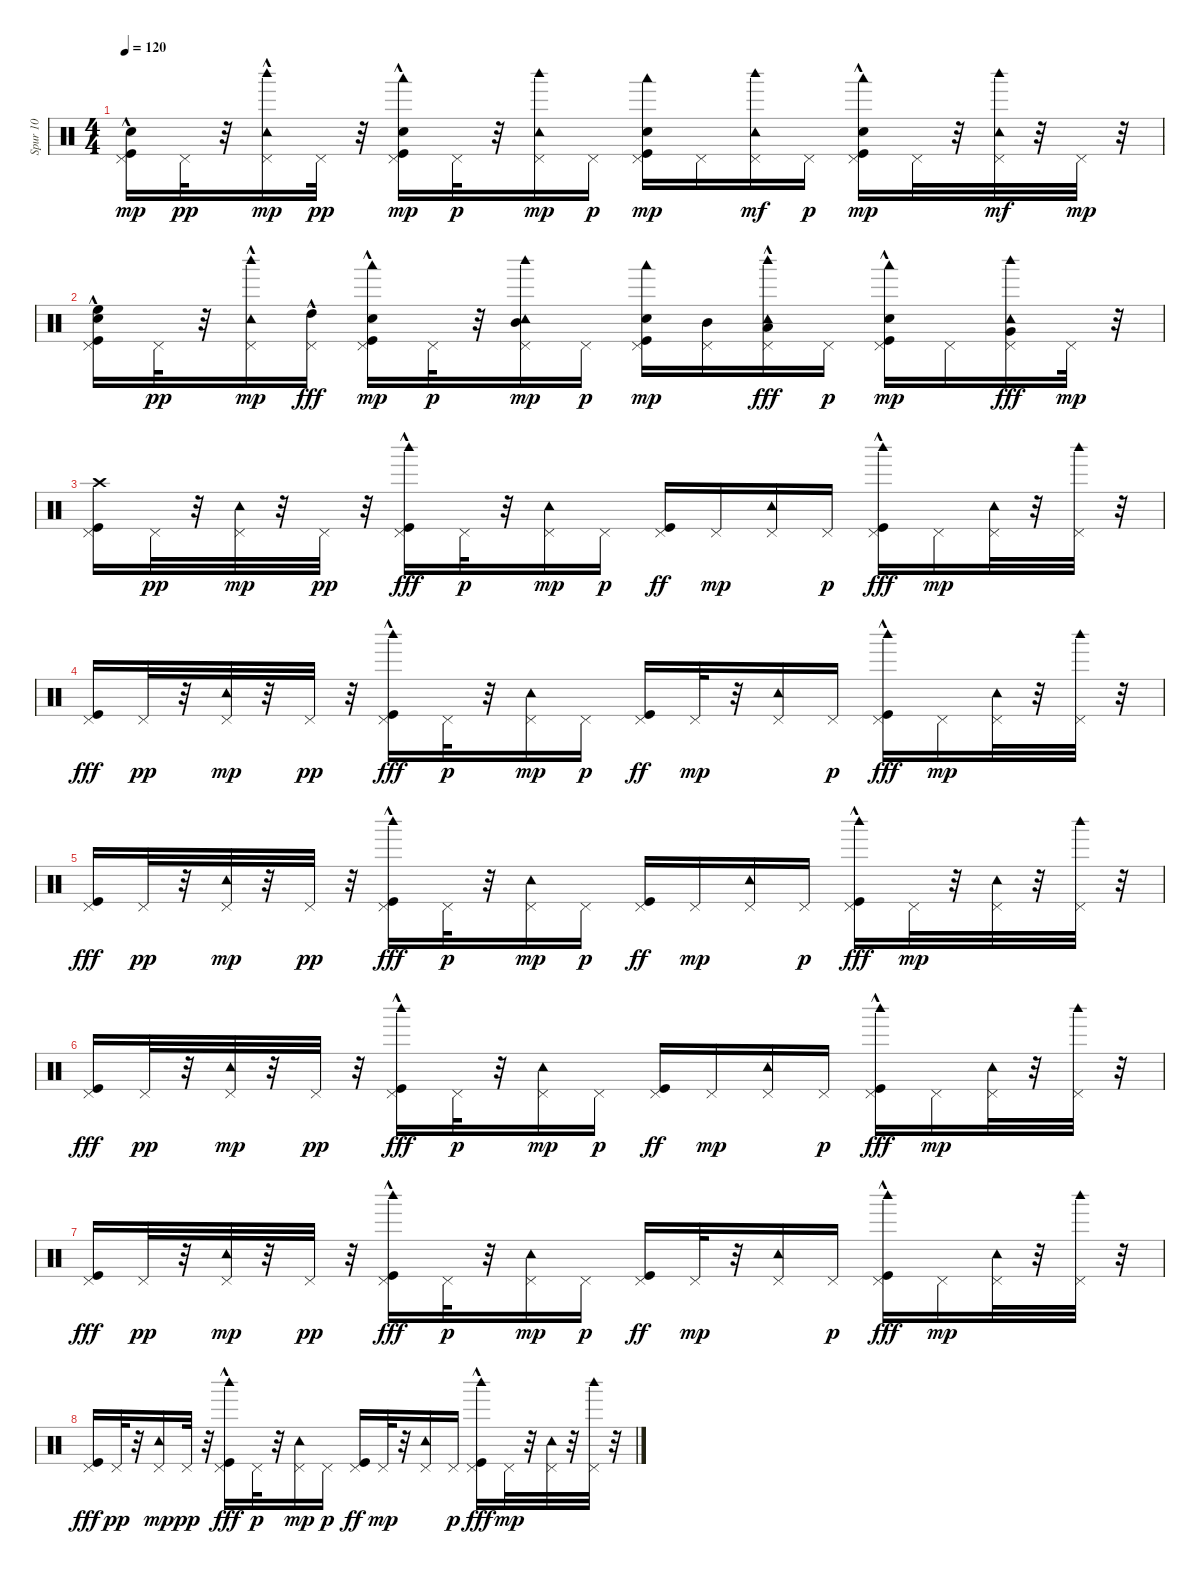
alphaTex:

\track ("Spur 10" "Spur 10") {instrument percussion}
\staff {score}
\articulation defaults
\ts (4 4)
\tempo 120
\clef neutral
\ks c
("Pedal Hi-Hat (hit)" "Kick (hit)" "Hand Clap (hit)"{hac}).16{dy mp} "Pedal Hi-Hat (hit)".32{dy pp} r.32 ("Pedal Hi-Hat (hit)" "Tambourine (hit)" "Woodblock high (hit)"{hac}).16{dy mp} "Pedal Hi-Hat (hit)".32{dy pp} r.32 ("Kick (hit)" "Pedal Hi-Hat (hit)" "Hand Clap (hit)" "Woodblock low (hit)"{hac}).16{dy mp} "Pedal Hi-Hat (hit)".32{dy p} r.32 ("Pedal Hi-Hat (hit)" "Tambourine (hit)" "Woodblock high (hit)").16{dy mp} "Pedal Hi-Hat (hit)".16{dy p} ("Kick (hit)" "Pedal Hi-Hat (hit)" "Hand Clap (hit)" "Woodblock low (hit)").16{dy mp} "Pedal Hi-Hat (hit)".16 ("Pedal Hi-Hat (hit)" "Tambourine (hit)" "Woodblock high (hit)").16{dy mf} "Pedal Hi-Hat (hit)".16{dy p} ("Kick (hit)"{hac} "Pedal Hi-Hat (hit)" "Hand Clap (hit)"{hac} "Woodblock low (hit)").16{dy mp} "Pedal Hi-Hat (hit)".32 r.32 ("Pedal Hi-Hat (hit)" "Tambourine (hit)" "Woodblock high (hit)").32{dy mf} r.32 "Pedal Hi-Hat (hit)".32{dy mp} r.32 |
("Pedal Hi-Hat (hit)" "Kick (hit)" "Hand Clap (hit)"{hac} "High Floor Tom (hit)"{hac}).16 "Pedal Hi-Hat (hit)".32{dy pp} r.32 ("Pedal Hi-Hat (hit)" "Tambourine (hit)" "Woodblock high (hit)"{hac}).16{dy mp} ("Pedal Hi-Hat (hit)" "High Tom (hit)"{hac}).16{dy fff} ("Kick (hit)" "Pedal Hi-Hat (hit)" "Hand Clap (hit)"{hac} "Woodblock low (hit)"{hac}).16{dy mp} "Pedal Hi-Hat (hit)".32{dy p} r.32 ("Pedal Hi-Hat (hit)" "Tambourine (hit)" "Woodblock high (hit)" "Mid Tom (hit)").16{dy mp} "Pedal Hi-Hat (hit)".16{dy p} ("Kick (hit)" "Pedal Hi-Hat (hit)" "Hand Clap (hit)" "Woodblock low (hit)").16{dy mp} ("Pedal Hi-Hat (hit)" "Mid Tom (hit)").16 ("Pedal Hi-Hat (hit)" "Tambourine (hit)" "Woodblock high (hit)" "Low Tom (hit)"{hac}).16{dy fff} "Pedal Hi-Hat (hit)".16{dy p} ("Kick (hit)"{hac} "Pedal Hi-Hat (hit)" "Hand Clap (hit)"{hac} "Woodblock low (hit)").16{dy mp} "Pedal Hi-Hat (hit)".16 ("Pedal Hi-Hat (hit)" "Tambourine (hit)" "Woodblock high (hit)" "Very Low Tom (hit)").16{dy fff} "Pedal Hi-Hat (hit)".32{dy mp} r.32 |
("Pedal Hi-Hat (hit)" "Kick (hit)" "Crash high (hit)").16 "Pedal Hi-Hat (hit)".32{dy pp} r.32 ("Pedal Hi-Hat (hit)" "Tambourine (hit)").32{dy mp} r.32 "Pedal Hi-Hat (hit)".32{dy pp} r.32 ("Kick (hit)" "Pedal Hi-Hat (hit)" "Woodblock high (hit)"{hac}).16{dy fff} "Pedal Hi-Hat (hit)".32{dy p} r.32 ("Pedal Hi-Hat (hit)" "Tambourine (hit)").16{dy mp} "Pedal Hi-Hat (hit)".16{dy p} ("Kick (hit)" "Pedal Hi-Hat (hit)").16{dy ff} "Pedal Hi-Hat (hit)".16{dy mp} ("Pedal Hi-Hat (hit)" "Tambourine (hit)").16 "Pedal Hi-Hat (hit)".16{dy p} ("Kick (hit)"{hac} "Pedal Hi-Hat (hit)" "Woodblock high (hit)").16{dy fff} "Pedal Hi-Hat (hit)".16{dy mp} ("Pedal Hi-Hat (hit)" "Tambourine (hit)").32 r.32 ("Pedal Hi-Hat (hit)" "Woodblock high (hit)").32 r.32 |
("Pedal Hi-Hat (hit)" "Kick (hit)").16{dy fff} "Pedal Hi-Hat (hit)".32{dy pp} r.32 ("Pedal Hi-Hat (hit)" "Tambourine (hit)").32{dy mp} r.32 "Pedal Hi-Hat (hit)".32{dy pp} r.32 ("Kick (hit)" "Pedal Hi-Hat (hit)" "Woodblock high (hit)"{hac}).16{dy fff} "Pedal Hi-Hat (hit)".32{dy p} r.32 ("Pedal Hi-Hat (hit)" "Tambourine (hit)").16{dy mp} "Pedal Hi-Hat (hit)".16{dy p} ("Kick (hit)" "Pedal Hi-Hat (hit)").16{dy ff} "Pedal Hi-Hat (hit)".32{dy mp} r.32 ("Pedal Hi-Hat (hit)" "Tambourine (hit)").16 "Pedal Hi-Hat (hit)".16{dy p} ("Kick (hit)"{hac} "Pedal Hi-Hat (hit)" "Woodblock high (hit)").16{dy fff} "Pedal Hi-Hat (hit)".16{dy mp} ("Pedal Hi-Hat (hit)" "Tambourine (hit)").32 r.32 ("Pedal Hi-Hat (hit)" "Woodblock high (hit)").32 r.32 |
("Pedal Hi-Hat (hit)" "Kick (hit)").16{dy fff} "Pedal Hi-Hat (hit)".32{dy pp} r.32 ("Pedal Hi-Hat (hit)" "Tambourine (hit)").32{dy mp} r.32 "Pedal Hi-Hat (hit)".32{dy pp} r.32 ("Kick (hit)" "Pedal Hi-Hat (hit)" "Woodblock high (hit)"{hac}).16{dy fff} "Pedal Hi-Hat (hit)".32{dy p} r.32 ("Pedal Hi-Hat (hit)" "Tambourine (hit)").16{dy mp} "Pedal Hi-Hat (hit)".16{dy p} ("Kick (hit)" "Pedal Hi-Hat (hit)").16{dy ff} "Pedal Hi-Hat (hit)".16{dy mp} ("Pedal Hi-Hat (hit)" "Tambourine (hit)").16 "Pedal Hi-Hat (hit)".16{dy p} ("Kick (hit)"{hac} "Pedal Hi-Hat (hit)" "Woodblock high (hit)").16{dy fff} "Pedal Hi-Hat (hit)".32{dy mp} r.32 ("Pedal Hi-Hat (hit)" "Tambourine (hit)").32 r.32 ("Pedal Hi-Hat (hit)" "Woodblock high (hit)").32 r.32 |
("Pedal Hi-Hat (hit)" "Kick (hit)").16{dy fff} "Pedal Hi-Hat (hit)".32{dy pp} r.32 ("Pedal Hi-Hat (hit)" "Tambourine (hit)").32{dy mp} r.32 "Pedal Hi-Hat (hit)".32{dy pp} r.32 ("Kick (hit)" "Pedal Hi-Hat (hit)" "Woodblock high (hit)"{hac}).16{dy fff} "Pedal Hi-Hat (hit)".32{dy p} r.32 ("Pedal Hi-Hat (hit)" "Tambourine (hit)").16{dy mp} "Pedal Hi-Hat (hit)".16{dy p} ("Kick (hit)" "Pedal Hi-Hat (hit)").16{dy ff} "Pedal Hi-Hat (hit)".16{dy mp} ("Pedal Hi-Hat (hit)" "Tambourine (hit)").16 "Pedal Hi-Hat (hit)".16{dy p} ("Kick (hit)"{hac} "Pedal Hi-Hat (hit)" "Woodblock high (hit)").16{dy fff} "Pedal Hi-Hat (hit)".16{dy mp} ("Pedal Hi-Hat (hit)" "Tambourine (hit)").32 r.32 ("Pedal Hi-Hat (hit)" "Woodblock high (hit)").32 r.32 |
("Pedal Hi-Hat (hit)" "Kick (hit)").16{dy fff} "Pedal Hi-Hat (hit)".32{dy pp} r.32 ("Pedal Hi-Hat (hit)" "Tambourine (hit)").32{dy mp} r.32 "Pedal Hi-Hat (hit)".32{dy pp} r.32 ("Kick (hit)" "Pedal Hi-Hat (hit)" "Woodblock high (hit)"{hac}).16{dy fff} "Pedal Hi-Hat (hit)".32{dy p} r.32 ("Pedal Hi-Hat (hit)" "Tambourine (hit)").16{dy mp} "Pedal Hi-Hat (hit)".16{dy p} ("Kick (hit)" "Pedal Hi-Hat (hit)").16{dy ff} "Pedal Hi-Hat (hit)".32{dy mp} r.32 ("Pedal Hi-Hat (hit)" "Tambourine (hit)").16 "Pedal Hi-Hat (hit)".16{dy p} ("Kick (hit)"{hac} "Pedal Hi-Hat (hit)" "Woodblock high (hit)").16{dy fff} "Pedal Hi-Hat (hit)".16{dy mp} ("Pedal Hi-Hat (hit)" "Tambourine (hit)").32 r.32 ("Pedal Hi-Hat (hit)" "Woodblock high (hit)").32 r.32 |
("Pedal Hi-Hat (hit)" "Kick (hit)").16{dy fff} "Pedal Hi-Hat (hit)".32{dy pp} r.32 ("Pedal Hi-Hat (hit)" "Tambourine (hit)").16{dy mp} "Pedal Hi-Hat (hit)".32{dy pp} r.32 ("Kick (hit)" "Pedal Hi-Hat (hit)" "Woodblock high (hit)"{hac}).16{dy fff} "Pedal Hi-Hat (hit)".32{dy p} r.32 ("Pedal Hi-Hat (hit)" "Tambourine (hit)").16{dy mp} "Pedal Hi-Hat (hit)".16{dy p} ("Kick (hit)" "Pedal Hi-Hat (hit)").16{dy ff} "Pedal Hi-Hat (hit)".32{dy mp} r.32 ("Pedal Hi-Hat (hit)" "Tambourine (hit)").16 "Pedal Hi-Hat (hit)".16{dy p} ("Kick (hit)"{hac} "Pedal Hi-Hat (hit)" "Woodblock high (hit)").16{dy fff} "Pedal Hi-Hat (hit)".32{dy mp} r.32 ("Pedal Hi-Hat (hit)" "Tambourine (hit)").32 r.32 ("Pedal Hi-Hat (hit)" "Woodblock high (hit)").32 r.32
